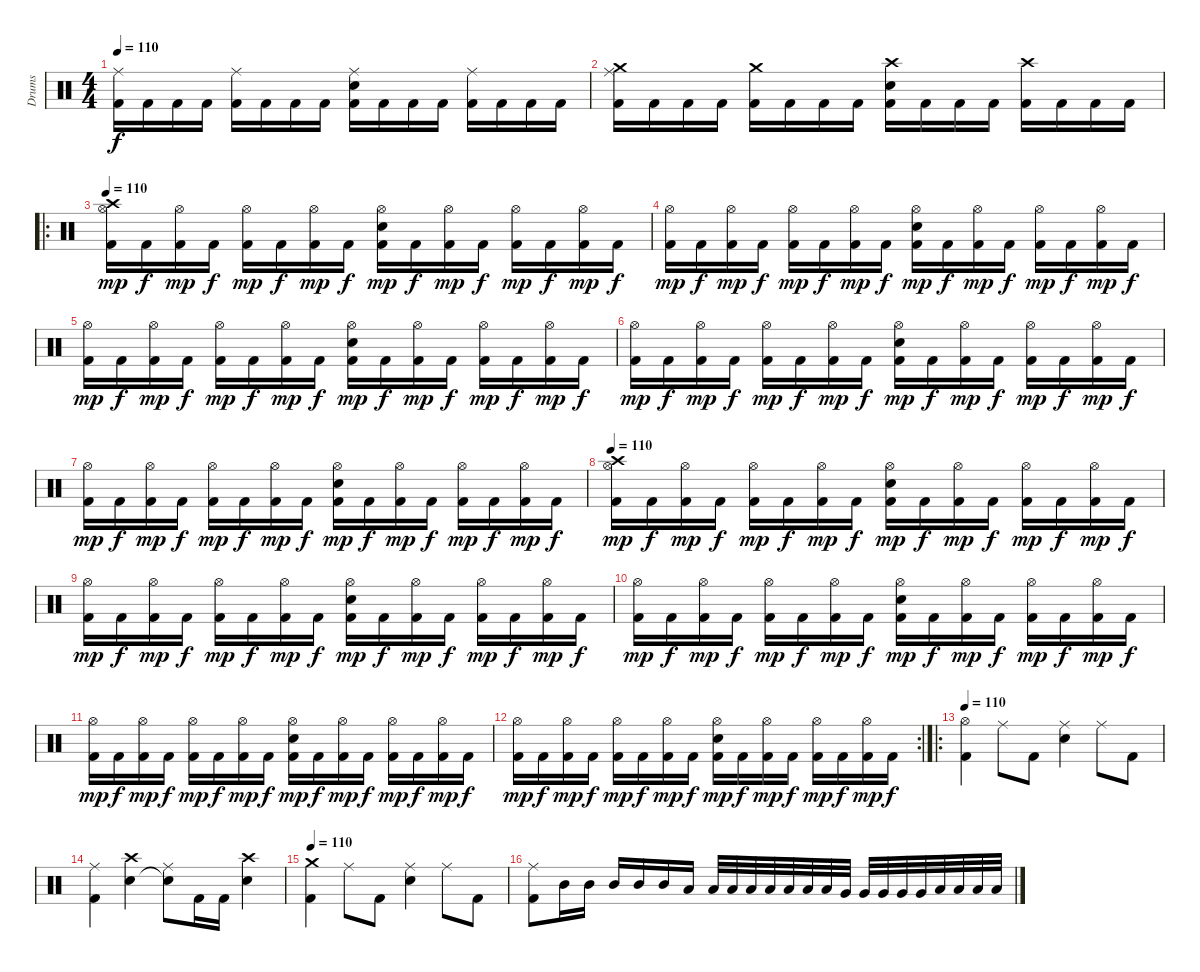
\track ("Drums" "Drums") {instrument percussion}
\staff {score}
\articulation defaults
\ts (4 4)
\tempo 110
\clef neutral
\ks c
("Ride (middle)" "Kick (hit) 2").16{dy f} "Kick (hit) 2".16 "Kick (hit) 2".16 "Kick (hit) 2".16 ("Ride (middle)" "Kick (hit) 2").16 "Kick (hit) 2".16 "Kick (hit) 2".16 "Kick (hit) 2".16 ("Ride (middle)" "Electric Snare (hit)" "Kick (hit) 2").16 "Kick (hit) 2".16 "Kick (hit) 2".16 "Kick (hit) 2".16 ("Ride (middle)" "Kick (hit) 2").16 "Kick (hit) 2".16 "Kick (hit) 2".16 "Kick (hit) 2".16 |
("Ride (middle)" "Crash medium (hit)" "Kick (hit) 2").16 "Kick (hit) 2".16 "Kick (hit) 2".16 "Kick (hit) 2".16 ("Crash medium (hit)" "Kick (hit) 2").16 "Kick (hit) 2".16 "Kick (hit) 2".16 "Kick (hit) 2".16 ("Crash high (hit)" "Electric Snare (hit)" "Kick (hit) 2").16 "Kick (hit) 2".16 "Kick (hit) 2".16 "Kick (hit) 2".16 ("Crash high (hit)" "Kick (hit) 2").16 "Kick (hit) 2".16 "Kick (hit) 2".16 "Kick (hit) 2".16 |
\ro
\tempo 110
("Crash high (hit)" "Hi-Hat (open)" "Kick (hit) 2").16{dy mp} "Kick (hit) 2".16{dy f} ("Hi-Hat (open)" "Kick (hit) 2").16{dy mp} "Kick (hit) 2".16{dy f} ("Hi-Hat (open)" "Kick (hit) 2").16{dy mp} "Kick (hit) 2".16{dy f} ("Hi-Hat (open)" "Kick (hit) 2").16{dy mp} "Kick (hit) 2".16{dy f} ("Hi-Hat (open)" "Electric Snare (hit)" "Kick (hit) 2").16{dy mp} "Kick (hit) 2".16{dy f} ("Hi-Hat (open)" "Kick (hit) 2").16{dy mp} "Kick (hit) 2".16{dy f} ("Hi-Hat (open)" "Kick (hit) 2").16{dy mp} "Kick (hit) 2".16{dy f} ("Hi-Hat (open)" "Kick (hit) 2").16{dy mp} "Kick (hit) 2".16{dy f} |
("Hi-Hat (open)" "Kick (hit) 2").16{dy mp} "Kick (hit) 2".16{dy f} ("Hi-Hat (open)" "Kick (hit) 2").16{dy mp} "Kick (hit) 2".16{dy f} ("Hi-Hat (open)" "Kick (hit) 2").16{dy mp} "Kick (hit) 2".16{dy f} ("Hi-Hat (open)" "Kick (hit) 2").16{dy mp} "Kick (hit) 2".16{dy f} ("Hi-Hat (open)" "Electric Snare (hit)" "Kick (hit) 2").16{dy mp} "Kick (hit) 2".16{dy f} ("Hi-Hat (open)" "Kick (hit) 2").16{dy mp} "Kick (hit) 2".16{dy f} ("Hi-Hat (open)" "Kick (hit) 2").16{dy mp} "Kick (hit) 2".16{dy f} ("Hi-Hat (open)" "Kick (hit) 2").16{dy mp} "Kick (hit) 2".16{dy f} |
("Hi-Hat (open)" "Kick (hit) 2").16{dy mp} "Kick (hit) 2".16{dy f} ("Hi-Hat (open)" "Kick (hit) 2").16{dy mp} "Kick (hit) 2".16{dy f} ("Hi-Hat (open)" "Kick (hit) 2").16{dy mp} "Kick (hit) 2".16{dy f} ("Hi-Hat (open)" "Kick (hit) 2").16{dy mp} "Kick (hit) 2".16{dy f} ("Hi-Hat (open)" "Electric Snare (hit)" "Kick (hit) 2").16{dy mp} "Kick (hit) 2".16{dy f} ("Hi-Hat (open)" "Kick (hit) 2").16{dy mp} "Kick (hit) 2".16{dy f} ("Hi-Hat (open)" "Kick (hit) 2").16{dy mp} "Kick (hit) 2".16{dy f} ("Hi-Hat (open)" "Kick (hit) 2").16{dy mp} "Kick (hit) 2".16{dy f} |
("Hi-Hat (open)" "Kick (hit) 2").16{dy mp} "Kick (hit) 2".16{dy f} ("Hi-Hat (open)" "Kick (hit) 2").16{dy mp} "Kick (hit) 2".16{dy f} ("Hi-Hat (open)" "Kick (hit) 2").16{dy mp} "Kick (hit) 2".16{dy f} ("Hi-Hat (open)" "Kick (hit) 2").16{dy mp} "Kick (hit) 2".16{dy f} ("Hi-Hat (open)" "Electric Snare (hit)" "Kick (hit) 2").16{dy mp} "Kick (hit) 2".16{dy f} ("Hi-Hat (open)" "Kick (hit) 2").16{dy mp} "Kick (hit) 2".16{dy f} ("Hi-Hat (open)" "Kick (hit) 2").16{dy mp} "Kick (hit) 2".16{dy f} ("Hi-Hat (open)" "Kick (hit) 2").16{dy mp} "Kick (hit) 2".16{dy f} |
("Hi-Hat (open)" "Kick (hit) 2").16{dy mp} "Kick (hit) 2".16{dy f} ("Hi-Hat (open)" "Kick (hit) 2").16{dy mp} "Kick (hit) 2".16{dy f} ("Hi-Hat (open)" "Kick (hit) 2").16{dy mp} "Kick (hit) 2".16{dy f} ("Hi-Hat (open)" "Kick (hit) 2").16{dy mp} "Kick (hit) 2".16{dy f} ("Hi-Hat (open)" "Electric Snare (hit)" "Kick (hit) 2").16{dy mp} "Kick (hit) 2".16{dy f} ("Hi-Hat (open)" "Kick (hit) 2").16{dy mp} "Kick (hit) 2".16{dy f} ("Hi-Hat (open)" "Kick (hit) 2").16{dy mp} "Kick (hit) 2".16{dy f} ("Hi-Hat (open)" "Kick (hit) 2").16{dy mp} "Kick (hit) 2".16{dy f} |
\tempo 110
("Crash high (hit)" "Hi-Hat (open)" "Kick (hit) 2").16{dy mp} "Kick (hit) 2".16{dy f} ("Hi-Hat (open)" "Kick (hit) 2").16{dy mp} "Kick (hit) 2".16{dy f} ("Hi-Hat (open)" "Kick (hit) 2").16{dy mp} "Kick (hit) 2".16{dy f} ("Hi-Hat (open)" "Kick (hit) 2").16{dy mp} "Kick (hit) 2".16{dy f} ("Hi-Hat (open)" "Electric Snare (hit)" "Kick (hit) 2").16{dy mp} "Kick (hit) 2".16{dy f} ("Hi-Hat (open)" "Kick (hit) 2").16{dy mp} "Kick (hit) 2".16{dy f} ("Hi-Hat (open)" "Kick (hit) 2").16{dy mp} "Kick (hit) 2".16{dy f} ("Hi-Hat (open)" "Kick (hit) 2").16{dy mp} "Kick (hit) 2".16{dy f} |
("Hi-Hat (open)" "Kick (hit) 2").16{dy mp} "Kick (hit) 2".16{dy f} ("Hi-Hat (open)" "Kick (hit) 2").16{dy mp} "Kick (hit) 2".16{dy f} ("Hi-Hat (open)" "Kick (hit) 2").16{dy mp} "Kick (hit) 2".16{dy f} ("Hi-Hat (open)" "Kick (hit) 2").16{dy mp} "Kick (hit) 2".16{dy f} ("Hi-Hat (open)" "Electric Snare (hit)" "Kick (hit) 2").16{dy mp} "Kick (hit) 2".16{dy f} ("Hi-Hat (open)" "Kick (hit) 2").16{dy mp} "Kick (hit) 2".16{dy f} ("Hi-Hat (open)" "Kick (hit) 2").16{dy mp} "Kick (hit) 2".16{dy f} ("Hi-Hat (open)" "Kick (hit) 2").16{dy mp} "Kick (hit) 2".16{dy f} |
("Hi-Hat (open)" "Kick (hit) 2").16{dy mp} "Kick (hit) 2".16{dy f} ("Hi-Hat (open)" "Kick (hit) 2").16{dy mp} "Kick (hit) 2".16{dy f} ("Hi-Hat (open)" "Kick (hit) 2").16{dy mp} "Kick (hit) 2".16{dy f} ("Hi-Hat (open)" "Kick (hit) 2").16{dy mp} "Kick (hit) 2".16{dy f} ("Hi-Hat (open)" "Electric Snare (hit)" "Kick (hit) 2").16{dy mp} "Kick (hit) 2".16{dy f} ("Hi-Hat (open)" "Kick (hit) 2").16{dy mp} "Kick (hit) 2".16{dy f} ("Hi-Hat (open)" "Kick (hit) 2").16{dy mp} "Kick (hit) 2".16{dy f} ("Hi-Hat (open)" "Kick (hit) 2").16{dy mp} "Kick (hit) 2".16{dy f} |
("Hi-Hat (open)" "Kick (hit) 2").16{dy mp} "Kick (hit) 2".16{dy f} ("Hi-Hat (open)" "Kick (hit) 2").16{dy mp} "Kick (hit) 2".16{dy f} ("Hi-Hat (open)" "Kick (hit) 2").16{dy mp} "Kick (hit) 2".16{dy f} ("Hi-Hat (open)" "Kick (hit) 2").16{dy mp} "Kick (hit) 2".16{dy f} ("Hi-Hat (open)" "Electric Snare (hit)" "Kick (hit) 2").16{dy mp} "Kick (hit) 2".16{dy f} ("Hi-Hat (open)" "Kick (hit) 2").16{dy mp} "Kick (hit) 2".16{dy f} ("Hi-Hat (open)" "Kick (hit) 2").16{dy mp} "Kick (hit) 2".16{dy f} ("Hi-Hat (open)" "Kick (hit) 2").16{dy mp} "Kick (hit) 2".16{dy f} |
\rc 2
("Hi-Hat (open)" "Kick (hit) 2").16{dy mp} "Kick (hit) 2".16{dy f} ("Hi-Hat (open)" "Kick (hit) 2").16{dy mp} "Kick (hit) 2".16{dy f} ("Hi-Hat (open)" "Kick (hit) 2").16{dy mp} "Kick (hit) 2".16{dy f} ("Hi-Hat (open)" "Kick (hit) 2").16{dy mp} "Kick (hit) 2".16{dy f} ("Hi-Hat (open)" "Electric Snare (hit)" "Kick (hit) 2").16{dy mp} "Kick (hit) 2".16{dy f} ("Hi-Hat (open)" "Kick (hit) 2").16{dy mp} "Kick (hit) 2".16{dy f} ("Hi-Hat (open)" "Kick (hit) 2").16{dy mp} "Kick (hit) 2".16{dy f} ("Hi-Hat (open)" "Kick (hit) 2").16{dy mp} "Kick (hit) 2".16{dy f} |
\ro
\tempo 110
("Hi-Hat (open)" "Kick (hit) 2").4 "Ride (middle)".8 "Kick (hit) 2".8 ("Ride (middle)" "Electric Snare (hit)").4 "Ride (middle)".8 "Kick (hit) 2".8 |
("Ride (middle)" "Kick (hit) 2").4 ("Crash high (hit)" "Electric Snare (hit)").4 ("Ride (middle)" "Snare (hit)"{t}).8 "Kick (hit) 2".16 "Kick (hit) 2".16 ("Crash high (hit)" "Electric Snare (hit)").4 |
\tempo 110
("Crash medium (hit)" "Kick (hit) 2").4 "Ride (middle)".8 "Kick (hit) 2".8 ("Ride (middle)" "Electric Snare (hit)").4 "Ride (middle)".8 "Kick (hit) 2".8 |
("Ride (middle)" "Kick (hit) 2").8 "Mid Tom (hit)".16 "Mid Tom (hit)".16 "Mid Tom (hit)".16 "Mid Tom (hit)".16 "Mid Tom (hit)".16 "Low Tom (hit)".16 "Low Tom (hit)".32 "Low Tom (hit)".32 "Low Tom (hit)".32 "Low Tom (hit)".32 "Low Tom (hit)".32 "Low Tom (hit)".32 "Low Tom (hit)".32 "Very Low Tom (hit)".32 "Very Low Tom (hit)".32 "Very Low Tom (hit)".32 "Very Low Tom (hit)".32 "Very Low Tom (hit)".32 "Low Floor Tom (hit)".32 "Low Floor Tom (hit)".32 "Low Floor Tom (hit)".32 "Low Floor Tom (hit)".32
